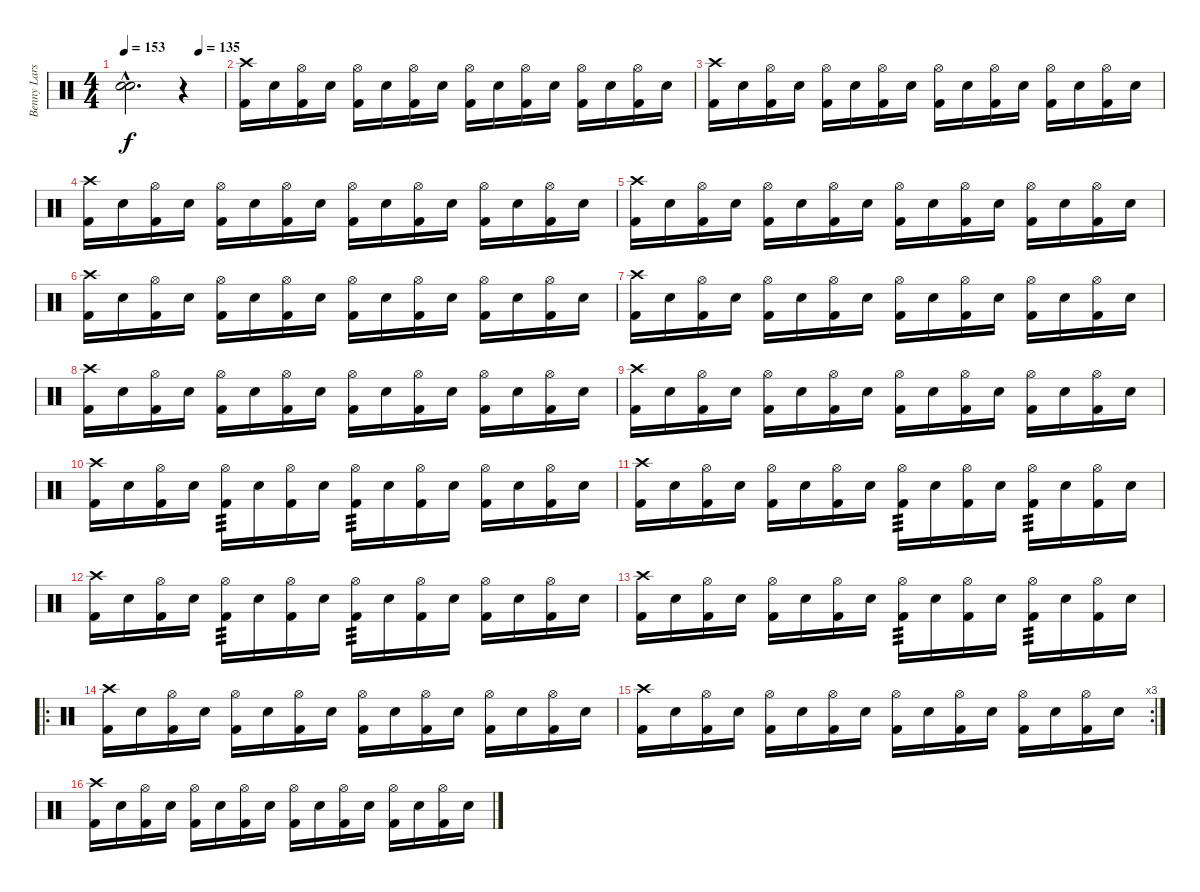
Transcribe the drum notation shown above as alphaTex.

\track ("Benny Larsson" "Benny Lars") {instrument percussion}
\staff {score}
\articulation defaults
\ts (4 4)
\tempo 153
\tempo (135 0.75)
\clef neutral
\ks c
("Snare (hit)"{hac t} "Snare (hit)"{hac t}).2{d dy f} r.4 |
("Crash high (hit)" "Kick (hit) 2").16 "Electric Snare (hit)".16 ("Hi-Hat (open)" "Kick (hit) 2").16 "Electric Snare (hit)".16 ("Hi-Hat (open)" "Kick (hit) 2").16 "Electric Snare (hit)".16 ("Hi-Hat (open)" "Kick (hit) 2").16 "Electric Snare (hit)".16 ("Hi-Hat (open)" "Kick (hit) 2").16 "Electric Snare (hit)".16 ("Hi-Hat (open)" "Kick (hit) 2").16 "Electric Snare (hit)".16 ("Hi-Hat (open)" "Kick (hit) 2").16 "Electric Snare (hit)".16 ("Hi-Hat (open)" "Kick (hit) 2").16 "Electric Snare (hit)".16 |
("Crash high (hit)" "Kick (hit) 2").16 "Electric Snare (hit)".16 ("Hi-Hat (open)" "Kick (hit) 2").16 "Electric Snare (hit)".16 ("Hi-Hat (open)" "Kick (hit) 2").16 "Electric Snare (hit)".16 ("Hi-Hat (open)" "Kick (hit) 2").16 "Electric Snare (hit)".16 ("Hi-Hat (open)" "Kick (hit) 2").16 "Electric Snare (hit)".16 ("Hi-Hat (open)" "Kick (hit) 2").16 "Electric Snare (hit)".16 ("Hi-Hat (open)" "Kick (hit) 2").16 "Electric Snare (hit)".16 ("Hi-Hat (open)" "Kick (hit) 2").16 "Electric Snare (hit)".16 |
("Crash high (hit)" "Kick (hit) 2").16 "Electric Snare (hit)".16 ("Hi-Hat (open)" "Kick (hit) 2").16 "Electric Snare (hit)".16 ("Hi-Hat (open)" "Kick (hit) 2").16 "Electric Snare (hit)".16 ("Hi-Hat (open)" "Kick (hit) 2").16 "Electric Snare (hit)".16 ("Hi-Hat (open)" "Kick (hit) 2").16 "Electric Snare (hit)".16 ("Hi-Hat (open)" "Kick (hit) 2").16 "Electric Snare (hit)".16 ("Hi-Hat (open)" "Kick (hit) 2").16 "Electric Snare (hit)".16 ("Hi-Hat (open)" "Kick (hit) 2").16 "Electric Snare (hit)".16 |
("Crash high (hit)" "Kick (hit) 2").16 "Electric Snare (hit)".16 ("Hi-Hat (open)" "Kick (hit) 2").16 "Electric Snare (hit)".16 ("Hi-Hat (open)" "Kick (hit) 2").16 "Electric Snare (hit)".16 ("Hi-Hat (open)" "Kick (hit) 2").16 "Electric Snare (hit)".16 ("Hi-Hat (open)" "Kick (hit) 2").16 "Electric Snare (hit)".16 ("Hi-Hat (open)" "Kick (hit) 2").16 "Electric Snare (hit)".16 ("Hi-Hat (open)" "Kick (hit) 2").16 "Electric Snare (hit)".16 ("Hi-Hat (open)" "Kick (hit) 2").16 "Electric Snare (hit)".16 |
("Crash high (hit)" "Kick (hit) 2").16 "Electric Snare (hit)".16 ("Hi-Hat (open)" "Kick (hit) 2").16 "Electric Snare (hit)".16 ("Hi-Hat (open)" "Kick (hit) 2").16 "Electric Snare (hit)".16 ("Hi-Hat (open)" "Kick (hit) 2").16 "Electric Snare (hit)".16 ("Hi-Hat (open)" "Kick (hit) 2").16 "Electric Snare (hit)".16 ("Hi-Hat (open)" "Kick (hit) 2").16 "Electric Snare (hit)".16 ("Hi-Hat (open)" "Kick (hit) 2").16 "Electric Snare (hit)".16 ("Hi-Hat (open)" "Kick (hit) 2").16 "Electric Snare (hit)".16 |
("Crash high (hit)" "Kick (hit) 2").16 "Electric Snare (hit)".16 ("Hi-Hat (open)" "Kick (hit) 2").16 "Electric Snare (hit)".16 ("Hi-Hat (open)" "Kick (hit) 2").16 "Electric Snare (hit)".16 ("Hi-Hat (open)" "Kick (hit) 2").16 "Electric Snare (hit)".16 ("Hi-Hat (open)" "Kick (hit) 2").16 "Electric Snare (hit)".16 ("Hi-Hat (open)" "Kick (hit) 2").16 "Electric Snare (hit)".16 ("Hi-Hat (open)" "Kick (hit) 2").16 "Electric Snare (hit)".16 ("Hi-Hat (open)" "Kick (hit) 2").16 "Electric Snare (hit)".16 |
("Crash high (hit)" "Kick (hit) 2").16 "Electric Snare (hit)".16 ("Hi-Hat (open)" "Kick (hit) 2").16 "Electric Snare (hit)".16 ("Hi-Hat (open)" "Kick (hit) 2").16 "Electric Snare (hit)".16 ("Hi-Hat (open)" "Kick (hit) 2").16 "Electric Snare (hit)".16 ("Hi-Hat (open)" "Kick (hit) 2").16 "Electric Snare (hit)".16 ("Hi-Hat (open)" "Kick (hit) 2").16 "Electric Snare (hit)".16 ("Hi-Hat (open)" "Kick (hit) 2").16 "Electric Snare (hit)".16 ("Hi-Hat (open)" "Kick (hit) 2").16 "Electric Snare (hit)".16 |
("Crash high (hit)" "Kick (hit) 2").16 "Electric Snare (hit)".16 ("Hi-Hat (open)" "Kick (hit) 2").16 "Electric Snare (hit)".16 ("Hi-Hat (open)" "Kick (hit) 2").16 "Electric Snare (hit)".16 ("Hi-Hat (open)" "Kick (hit) 2").16 "Electric Snare (hit)".16 ("Hi-Hat (open)" "Kick (hit) 2").16 "Electric Snare (hit)".16 ("Hi-Hat (open)" "Kick (hit) 2").16 "Electric Snare (hit)".16 ("Hi-Hat (open)" "Kick (hit) 2").16 "Electric Snare (hit)".16 ("Hi-Hat (open)" "Kick (hit) 2").16 "Electric Snare (hit)".16 |
("Crash high (hit)" "Kick (hit) 2").16 "Electric Snare (hit)".16 ("Hi-Hat (open)" "Kick (hit) 2").16 "Electric Snare (hit)".16 ("Hi-Hat (open)" "Kick (hit) 2").16{tp 3} "Electric Snare (hit)".16 ("Hi-Hat (open)" "Kick (hit) 2").16 "Electric Snare (hit)".16 ("Hi-Hat (open)" "Kick (hit) 2").16{tp 3} "Electric Snare (hit)".16 ("Hi-Hat (open)" "Kick (hit) 2").16 "Electric Snare (hit)".16 ("Hi-Hat (open)" "Kick (hit) 2").16 "Electric Snare (hit)".16 ("Hi-Hat (open)" "Kick (hit) 2").16 "Electric Snare (hit)".16 |
("Crash high (hit)" "Kick (hit) 2").16 "Electric Snare (hit)".16 ("Hi-Hat (open)" "Kick (hit) 2").16 "Electric Snare (hit)".16 ("Hi-Hat (open)" "Kick (hit) 2").16 "Electric Snare (hit)".16 ("Hi-Hat (open)" "Kick (hit) 2").16 "Electric Snare (hit)".16 ("Hi-Hat (open)" "Kick (hit) 2").16{tp 3} "Electric Snare (hit)".16 ("Hi-Hat (open)" "Kick (hit) 2").16 "Electric Snare (hit)".16 ("Hi-Hat (open)" "Kick (hit) 2").16{tp 3} "Electric Snare (hit)".16 ("Hi-Hat (open)" "Kick (hit) 2").16 "Electric Snare (hit)".16 |
("Crash high (hit)" "Kick (hit) 2").16 "Electric Snare (hit)".16 ("Hi-Hat (open)" "Kick (hit) 2").16 "Electric Snare (hit)".16 ("Hi-Hat (open)" "Kick (hit) 2").16{tp 3} "Electric Snare (hit)".16 ("Hi-Hat (open)" "Kick (hit) 2").16 "Electric Snare (hit)".16 ("Hi-Hat (open)" "Kick (hit) 2").16{tp 3} "Electric Snare (hit)".16 ("Hi-Hat (open)" "Kick (hit) 2").16 "Electric Snare (hit)".16 ("Hi-Hat (open)" "Kick (hit) 2").16 "Electric Snare (hit)".16 ("Hi-Hat (open)" "Kick (hit) 2").16 "Electric Snare (hit)".16 |
("Crash high (hit)" "Kick (hit) 2").16 "Electric Snare (hit)".16 ("Hi-Hat (open)" "Kick (hit) 2").16 "Electric Snare (hit)".16 ("Hi-Hat (open)" "Kick (hit) 2").16 "Electric Snare (hit)".16 ("Hi-Hat (open)" "Kick (hit) 2").16 "Electric Snare (hit)".16 ("Hi-Hat (open)" "Kick (hit) 2").16{tp 3} "Electric Snare (hit)".16 ("Hi-Hat (open)" "Kick (hit) 2").16 "Electric Snare (hit)".16 ("Hi-Hat (open)" "Kick (hit) 2").16{tp 3} "Electric Snare (hit)".16 ("Hi-Hat (open)" "Kick (hit) 2").16 "Electric Snare (hit)".16 |
\ro
("Crash high (hit)" "Kick (hit) 2").16 "Electric Snare (hit)".16 ("Hi-Hat (open)" "Kick (hit) 2").16 "Electric Snare (hit)".16 ("Hi-Hat (open)" "Kick (hit) 2").16 "Electric Snare (hit)".16 ("Hi-Hat (open)" "Kick (hit) 2").16 "Electric Snare (hit)".16 ("Hi-Hat (open)" "Kick (hit) 2").16 "Electric Snare (hit)".16 ("Hi-Hat (open)" "Kick (hit) 2").16 "Electric Snare (hit)".16 ("Hi-Hat (open)" "Kick (hit) 2").16 "Electric Snare (hit)".16 ("Hi-Hat (open)" "Kick (hit) 2").16 "Electric Snare (hit)".16 |
\rc 3
("Crash high (hit)" "Kick (hit) 2").16 "Electric Snare (hit)".16 ("Hi-Hat (open)" "Kick (hit) 2").16 "Electric Snare (hit)".16 ("Hi-Hat (open)" "Kick (hit) 2").16 "Electric Snare (hit)".16 ("Hi-Hat (open)" "Kick (hit) 2").16 "Electric Snare (hit)".16 ("Hi-Hat (open)" "Kick (hit) 2").16 "Electric Snare (hit)".16 ("Hi-Hat (open)" "Kick (hit) 2").16 "Electric Snare (hit)".16 ("Hi-Hat (open)" "Kick (hit) 2").16 "Electric Snare (hit)".16 ("Hi-Hat (open)" "Kick (hit) 2").16 "Electric Snare (hit)".16 |
("Crash high (hit)" "Kick (hit) 2").16 "Electric Snare (hit)".16 ("Hi-Hat (open)" "Kick (hit) 2").16 "Electric Snare (hit)".16 ("Hi-Hat (open)" "Kick (hit) 2").16 "Electric Snare (hit)".16 ("Hi-Hat (open)" "Kick (hit) 2").16 "Electric Snare (hit)".16 ("Hi-Hat (open)" "Kick (hit) 2").16 "Electric Snare (hit)".16 ("Hi-Hat (open)" "Kick (hit) 2").16 "Electric Snare (hit)".16 ("Hi-Hat (open)" "Kick (hit) 2").16 "Electric Snare (hit)".16 ("Hi-Hat (open)" "Kick (hit) 2").16 "Electric Snare (hit)".16
